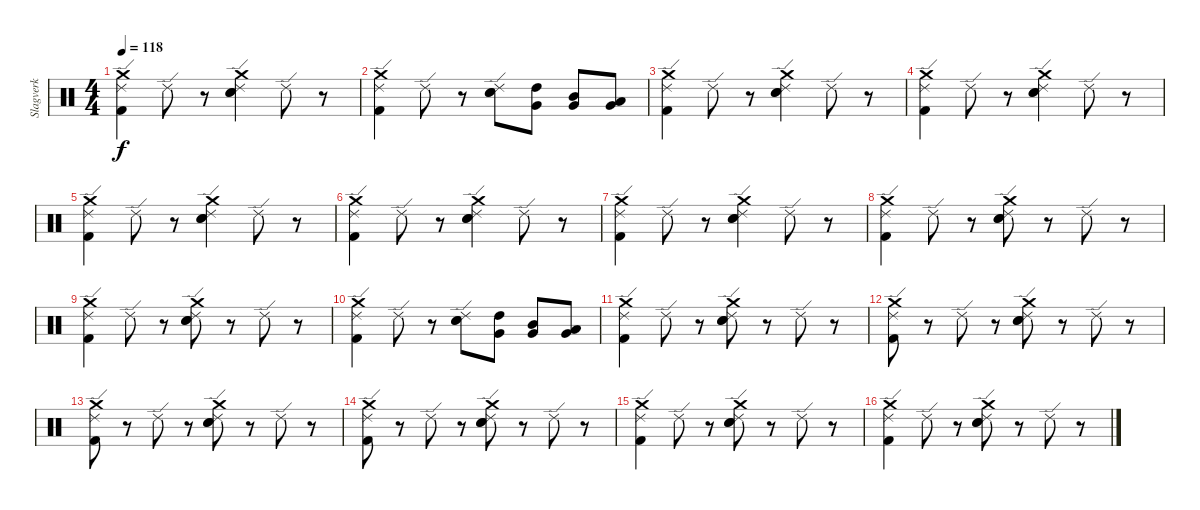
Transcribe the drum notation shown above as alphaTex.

\track ("Slagverk" "Slagverk") {instrument percussion}
\staff {score}
\articulation defaults
\ts (4 4)
\tempo 118
\clef neutral
\ks c
("Crash medium (hit)" "Kick (hit) 2" "Ride (edge) 2").4{dy f volume 11} "Ride (edge) 2".8 r.8 ("Crash medium (hit)" "Electric Snare (hit)" "Snare (hit) 2" "Ride (edge) 2").4{volume 11} "Ride (edge) 2".8{volume 11} r.8 |
("Crash medium (hit)" "Kick (hit) 2" "Ride (edge) 2").4 "Ride (edge) 2".8{volume 11} r.8 ("Electric Snare (hit)" "Snare (hit) 2" "Ride (edge) 2").8{volume 11} ("Very Low Tom (hit)" "High Tom (hit)").8 ("Mid Tom (hit)" "Very Low Tom (hit)").8 ("Low Tom (hit)" "Very Low Tom (hit)").8{volume 10} |
("Crash medium (hit)" "Kick (hit) 2" "Ride (edge) 2").4 "Ride (edge) 2".8{volume 10} r.8 ("Crash medium (hit)" "Electric Snare (hit)" "Snare (hit) 2" "Ride (edge) 2").4 "Ride (edge) 2".8{volume 10} r.8 |
("Crash medium (hit)" "Kick (hit) 2" "Ride (edge) 2").4{volume 10} "Ride (edge) 2".8 r.8 ("Crash medium (hit)" "Electric Snare (hit)" "Snare (hit) 2" "Ride (edge) 2").4{volume 10} "Ride (edge) 2".8{volume 10} r.8 |
("Crash medium (hit)" "Kick (hit) 2" "Ride (edge) 2").4 "Ride (edge) 2".8{volume 10} r.8 ("Crash medium (hit)" "Electric Snare (hit)" "Snare (hit) 2" "Ride (edge) 2").4 "Ride (edge) 2".8{volume 10} r.8 |
("Crash medium (hit)" "Kick (hit) 2" "Ride (edge) 2").4{volume 10} "Ride (edge) 2".8 r.8 ("Crash medium (hit)" "Electric Snare (hit)" "Snare (hit) 2" "Ride (edge) 2").4{volume 9} "Ride (edge) 2".8{volume 9} r.8 |
("Crash medium (hit)" "Kick (hit) 2" "Ride (edge) 2").4 "Ride (edge) 2".8{volume 9} r.8 ("Crash medium (hit)" "Electric Snare (hit)" "Snare (hit) 2" "Ride (edge) 2").4{volume 9} "Ride (edge) 2".8 r.8 |
("Crash medium (hit)" "Kick (hit) 2" "Ride (edge) 2").4{volume 9} "Ride (edge) 2".8{volume 9} r.8 ("Crash medium (hit)" "Electric Snare (hit)" "Snare (hit) 2" "Ride (edge) 2").8 r.8 "Ride (edge) 2".8{volume 9} r.8 |
("Crash medium (hit)" "Kick (hit) 2" "Ride (edge) 2").4{volume 8} "Ride (edge) 2".8 r.8 ("Crash medium (hit)" "Electric Snare (hit)" "Snare (hit) 2" "Ride (edge) 2").8{volume 8} r.8 "Ride (edge) 2".8{volume 8} r.8 |
("Crash medium (hit)" "Kick (hit) 2" "Ride (edge) 2").4 "Ride (edge) 2".8{volume 8} r.8 ("Electric Snare (hit)" "Snare (hit) 2" "Ride (edge) 2").8{volume 8} ("Very Low Tom (hit)" "High Tom (hit)").8 ("Mid Tom (hit)" "Very Low Tom (hit)").8 ("Low Tom (hit)" "Very Low Tom (hit)").8{volume 8} |
("Crash medium (hit)" "Kick (hit) 2" "Ride (edge) 2").4 "Ride (edge) 2".8 r.8 ("Crash medium (hit)" "Electric Snare (hit)" "Snare (hit) 2" "Ride (edge) 2").8{volume 8} r.8 "Ride (edge) 2".8{volume 8} r.8 |
("Crash medium (hit)" "Kick (hit) 2" "Ride (edge) 2").8 r.8 "Ride (edge) 2".8{volume 8} r.8 ("Crash medium (hit)" "Electric Snare (hit)" "Snare (hit) 2" "Ride (edge) 2").8{volume 7} r.8 "Ride (edge) 2".8 r.8 |
("Crash medium (hit)" "Kick (hit) 2" "Ride (edge) 2").8{volume 7} r.8 "Ride (edge) 2".8{volume 7} r.8 ("Crash medium (hit)" "Electric Snare (hit)" "Snare (hit) 2" "Ride (edge) 2").8 r.8 "Ride (edge) 2".8{volume 7} r.8 |
("Crash medium (hit)" "Kick (hit) 2" "Ride (edge) 2").8{volume 7} r.8 "Ride (edge) 2".8 r.8 ("Crash medium (hit)" "Electric Snare (hit)" "Snare (hit) 2" "Ride (edge) 2").8{volume 7} r.8 "Ride (edge) 2".8{volume 7} r.8 |
("Crash medium (hit)" "Kick (hit) 2" "Ride (edge) 2").4 "Ride (edge) 2".8{volume 6} r.8 ("Crash medium (hit)" "Electric Snare (hit)" "Snare (hit) 2" "Ride (edge) 2").8{volume 6} r.8 "Ride (edge) 2".8 r.8 |
("Crash medium (hit)" "Kick (hit) 2" "Ride (edge) 2").4{volume 6} "Ride (edge) 2".8{volume 6} r.8 ("Crash medium (hit)" "Electric Snare (hit)" "Snare (hit) 2" "Ride (edge) 2").8 r.8 "Ride (edge) 2".8{volume 6} r.8
